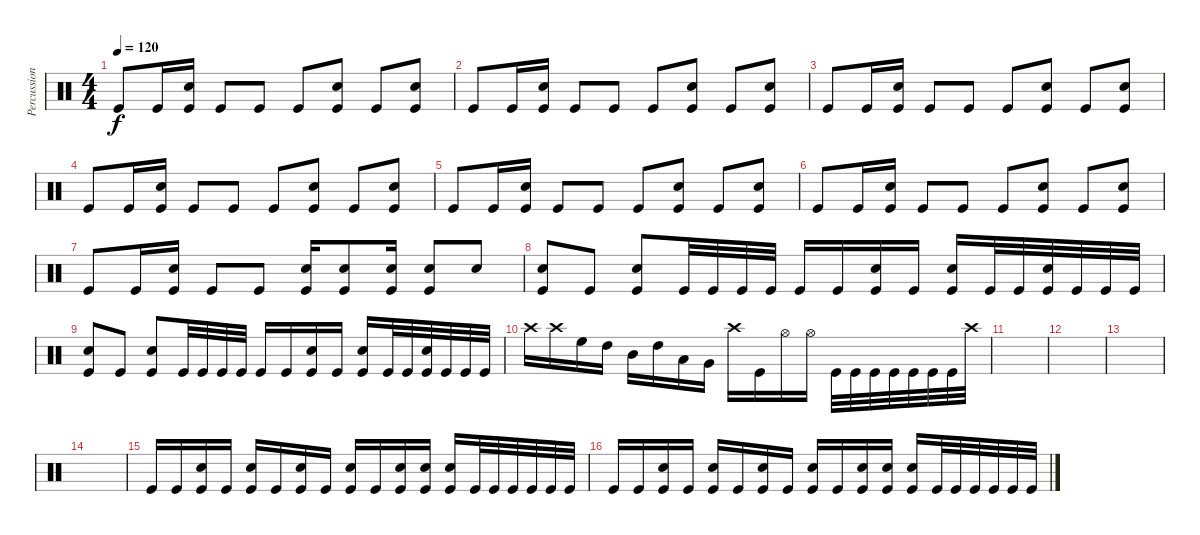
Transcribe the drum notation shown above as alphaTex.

\track ("Percussion" "Percussion") {instrument percussion}
\staff {score}
\articulation defaults
\ts (4 4)
\tempo 120
\clef neutral
\ks c "Kick (hit)".8{dy f} "Kick (hit)".16
("Kick (hit)" "Snare (hit) 2").16 "Kick (hit)".8 "Kick (hit)".8 "Kick (hit)".8 ("Kick (hit)" "Snare (hit) 2").8 "Kick (hit)".8 ("Kick (hit)" "Snare (hit) 2").8 |
"Kick (hit)".8 "Kick (hit)".16 ("Kick (hit)" "Snare (hit) 2").16 "Kick (hit)".8 "Kick (hit)".8 "Kick (hit)".8 ("Kick (hit)" "Snare (hit) 2").8 "Kick (hit)".8 ("Kick (hit)" "Snare (hit) 2").8 |
"Kick (hit)".8 "Kick (hit)".16 ("Kick (hit)" "Snare (hit) 2").16 "Kick (hit)".8 "Kick (hit)".8 "Kick (hit)".8 ("Kick (hit)" "Snare (hit) 2").8 "Kick (hit)".8 ("Kick (hit)" "Snare (hit) 2").8 |
"Kick (hit)".8 "Kick (hit)".16 ("Kick (hit)" "Snare (hit) 2").16 "Kick (hit)".8 "Kick (hit)".8 "Kick (hit)".8 ("Kick (hit)" "Snare (hit) 2").8 "Kick (hit)".8 ("Kick (hit)" "Snare (hit) 2").8 |
"Kick (hit)".8 "Kick (hit)".16 ("Kick (hit)" "Snare (hit) 2").16 "Kick (hit)".8 "Kick (hit)".8 "Kick (hit)".8 ("Kick (hit)" "Snare (hit) 2").8 "Kick (hit)".8 ("Kick (hit)" "Snare (hit) 2").8 |
"Kick (hit)".8 "Kick (hit)".16 ("Kick (hit)" "Snare (hit) 2").16 "Kick (hit)".8 "Kick (hit)".8 "Kick (hit)".8 ("Kick (hit)" "Snare (hit) 2").8 "Kick (hit)".8 ("Kick (hit)" "Snare (hit) 2").8 |
"Kick (hit)".8 "Kick (hit)".16 ("Kick (hit)" "Snare (hit) 2").16 "Kick (hit)".8 "Kick (hit)".8 ("Kick (hit)" "Snare (hit) 2").16 ("Kick (hit)" "Snare (hit) 2").8 ("Kick (hit)" "Snare (hit) 2").16 ("Kick (hit)" "Snare (hit) 2").8 "Snare (hit) 2".8 |
("Kick (hit)" "Snare (hit) 2").8 "Kick (hit)".8 ("Kick (hit)" "Snare (hit) 2").8 "Kick (hit)".32 "Kick (hit)".32 "Kick (hit)".32 "Kick (hit)".32 "Kick (hit)".16 "Kick (hit)".16 ("Kick (hit)" "Snare (hit) 2").16 "Kick (hit)".16 ("Kick (hit)" "Snare (hit) 2").16 "Kick (hit)".32 "Kick (hit)".32 ("Kick (hit)" "Snare (hit) 2").32 "Kick (hit)".32 "Kick (hit)".32 "Kick (hit)".32 |
("Kick (hit)" "Snare (hit) 2").8 "Kick (hit)".8 ("Kick (hit)" "Snare (hit) 2").8 "Kick (hit)".32 "Kick (hit)".32 "Kick (hit)".32 "Kick (hit)".32 "Kick (hit)".16 "Kick (hit)".16 ("Kick (hit)" "Snare (hit) 2").16 "Kick (hit)".16 ("Kick (hit)" "Snare (hit) 2").16 "Kick (hit)".32 "Kick (hit)".32 ("Kick (hit)" "Snare (hit) 2").32 "Kick (hit)".32 "Kick (hit)".32 "Kick (hit)".32 |
"Crash high (hit)".16 "Crash high (hit)".16 "High Floor Tom (hit)".16 "High Tom (hit)".16 "Mid Tom (hit)".16 "High Tom (hit)".16 "Low Tom (hit)".16 "Very Low Tom (hit)".16 "Crash high (hit)".16 "Kick (hit)".16 "Hi-Hat (open)".16 "Hi-Hat (open)".16 "Kick (hit)".32 "Kick (hit)".32 "Kick (hit)".32 "Kick (hit)".32 "Kick (hit)".32 "Kick (hit)".32 "Kick (hit)".32 "Crash high (hit)".32 |
|
|
|
|
"Kick (hit)".16 "Kick (hit)".16 ("Kick (hit)" "Snare (hit) 2").16 "Kick (hit)".16 ("Kick (hit)" "Snare (hit) 2").16 "Kick (hit)".16 ("Kick (hit)" "Snare (hit) 2").16 "Kick (hit)".16 ("Kick (hit)" "Snare (hit) 2").16 "Kick (hit)".16 ("Kick (hit)" "Snare (hit) 2").16 ("Kick (hit)" "Snare (hit) 2").16 ("Kick (hit)" "Snare (hit) 2").16 "Kick (hit)".32 "Kick (hit)".32 "Kick (hit)".32 "Kick (hit)".32 "Kick (hit)".32 "Kick (hit)".32 |
"Kick (hit)".16 "Kick (hit)".16 ("Kick (hit)" "Snare (hit) 2").16 "Kick (hit)".16 ("Kick (hit)" "Snare (hit) 2").16 "Kick (hit)".16 ("Kick (hit)" "Snare (hit) 2").16 "Kick (hit)".16 ("Kick (hit)" "Snare (hit) 2").16 "Kick (hit)".16 ("Kick (hit)" "Snare (hit) 2").16 ("Kick (hit)" "Snare (hit) 2").16 ("Kick (hit)" "Snare (hit) 2").16 "Kick (hit)".32 "Kick (hit)".32 "Kick (hit)".32 "Kick (hit)".32 "Kick (hit)".32 "Kick (hit)".32
